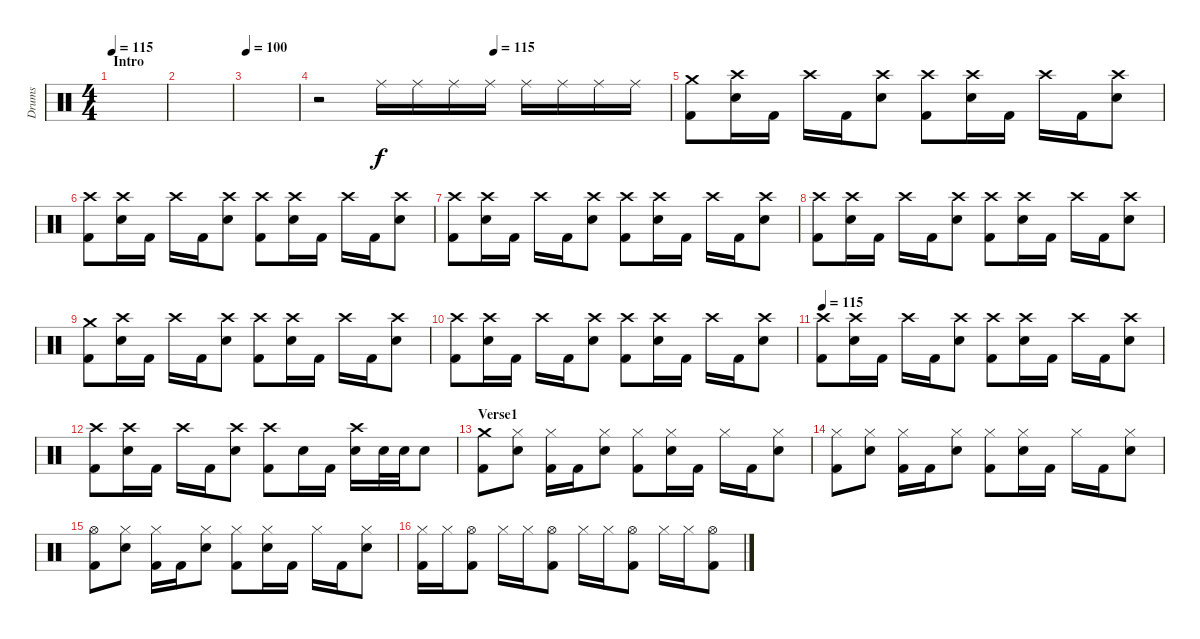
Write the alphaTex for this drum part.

\track ("Drums" "Drums") {instrument percussion}
\staff {score}
\articulation defaults
\ts (4 4)
\section ("" "Intro")
\tempo 115
\tempo 100
\tempo 115
\clef neutral
\ks c
|
|
\tempo 100
|
\tempo (115 0.5)
r.2 "Ride (middle)".16 "Ride (middle)".16 "Ride (middle)".16 "Ride (middle)".16 "Ride (middle)".16 "Ride (middle)".16 "Ride (middle)".16 "Ride (middle)".16 |
("Crash medium (hit)" "Kick (hit) 2").8 ("Crash high (hit)" "Electric Snare (hit)").16 "Kick (hit) 2".16 "Crash high (hit)".16 "Kick (hit) 2".16 ("Crash high (hit)" "Electric Snare (hit)").8 ("Crash high (hit)" "Kick (hit) 2").8 ("Crash high (hit)" "Electric Snare (hit)").16 "Kick (hit) 2".16 "Crash high (hit)".16 "Kick (hit) 2".16 ("Crash high (hit)" "Electric Snare (hit)").8 |
("Crash high (hit)" "Kick (hit) 2").8 ("Crash high (hit)" "Electric Snare (hit)").16 "Kick (hit) 2".16 "Crash high (hit)".16 "Kick (hit) 2".16 ("Crash high (hit)" "Electric Snare (hit)").8 ("Crash high (hit)" "Kick (hit) 2").8 ("Crash high (hit)" "Electric Snare (hit)").16 "Kick (hit) 2".16 "Crash high (hit)".16 "Kick (hit) 2".16 ("Crash high (hit)" "Electric Snare (hit)").8 |
("Crash high (hit)" "Kick (hit) 2").8 ("Crash high (hit)" "Electric Snare (hit)").16 "Kick (hit) 2".16 "Crash high (hit)".16 "Kick (hit) 2".16 ("Crash high (hit)" "Electric Snare (hit)").8 ("Crash high (hit)" "Kick (hit) 2").8 ("Crash high (hit)" "Electric Snare (hit)").16 "Kick (hit) 2".16 "Crash high (hit)".16 "Kick (hit) 2".16 ("Crash high (hit)" "Electric Snare (hit)").8 |
("Crash high (hit)" "Kick (hit) 2").8 ("Crash high (hit)" "Electric Snare (hit)").16 "Kick (hit) 2".16 "Crash high (hit)".16 "Kick (hit) 2".16 ("Crash high (hit)" "Electric Snare (hit)").8 ("Crash high (hit)" "Kick (hit) 2").8 ("Crash high (hit)" "Electric Snare (hit)").16 "Kick (hit) 2".16 "Crash high (hit)".16 "Kick (hit) 2".16 ("Crash high (hit)" "Electric Snare (hit)").8 |
("Crash medium (hit)" "Kick (hit) 2").8 ("Crash high (hit)" "Electric Snare (hit)").16 "Kick (hit) 2".16 "Crash high (hit)".16 "Kick (hit) 2".16 ("Crash high (hit)" "Electric Snare (hit)").8 ("Crash high (hit)" "Kick (hit) 2").8 ("Crash high (hit)" "Electric Snare (hit)").16 "Kick (hit) 2".16 "Crash high (hit)".16 "Kick (hit) 2".16 ("Crash high (hit)" "Electric Snare (hit)").8 |
("Crash high (hit)" "Kick (hit) 2").8 ("Crash high (hit)" "Electric Snare (hit)").16 "Kick (hit) 2".16 "Crash high (hit)".16 "Kick (hit) 2".16 ("Crash high (hit)" "Electric Snare (hit)").8 ("Crash high (hit)" "Kick (hit) 2").8 ("Crash high (hit)" "Electric Snare (hit)").16 "Kick (hit) 2".16 "Crash high (hit)".16 "Kick (hit) 2".16 ("Crash high (hit)" "Electric Snare (hit)").8 |
\tempo 115
("Crash high (hit)" "Kick (hit) 2").8 ("Crash high (hit)" "Electric Snare (hit)").16 "Kick (hit) 2".16 "Crash high (hit)".16 "Kick (hit) 2".16 ("Crash high (hit)" "Electric Snare (hit)").8 ("Crash high (hit)" "Kick (hit) 2").8 ("Crash high (hit)" "Electric Snare (hit)").16 "Kick (hit) 2".16 "Crash high (hit)".16 "Kick (hit) 2".16 ("Crash high (hit)" "Electric Snare (hit)").8 |
("Crash high (hit)" "Kick (hit) 2").8 ("Crash high (hit)" "Electric Snare (hit)").16 "Kick (hit) 2".16 "Crash high (hit)".16 "Kick (hit) 2".16 ("Crash high (hit)" "Electric Snare (hit)").8 ("Crash high (hit)" "Kick (hit) 2").8 "Electric Snare (hit)".16 "Kick (hit) 2".16 ("Crash high (hit)" "Electric Snare (hit)").16 "Electric Snare (hit)".32 "Electric Snare (hit)".32 "Electric Snare (hit)".8 |
\section ("" "Verse1")
("Crash medium (hit)" "Kick (hit) 2").8 ("Hi-Hat (closed)" "Electric Snare (hit)").8 ("Hi-Hat (closed)" "Kick (hit) 2").16 "Kick (hit) 2".16 ("Hi-Hat (closed)" "Electric Snare (hit)").8 ("Hi-Hat (closed)" "Kick (hit) 2").8 ("Hi-Hat (closed)" "Electric Snare (hit)").16 "Kick (hit) 2".16 "Hi-Hat (closed)".16 "Kick (hit) 2".16 ("Hi-Hat (closed)" "Electric Snare (hit)").8 |
("Hi-Hat (closed)" "Kick (hit) 2").8 ("Hi-Hat (closed)" "Electric Snare (hit)").8 ("Hi-Hat (closed)" "Kick (hit) 2").16 "Kick (hit) 2".16 ("Hi-Hat (closed)" "Electric Snare (hit)").8 ("Hi-Hat (closed)" "Kick (hit) 2").8 ("Hi-Hat (closed)" "Electric Snare (hit)").16 "Kick (hit) 2".16 "Hi-Hat (closed)".16 "Kick (hit) 2".16 ("Hi-Hat (closed)" "Electric Snare (hit)").8 |
("Hi-Hat (open)" "Kick (hit) 2").8 ("Hi-Hat (closed)" "Electric Snare (hit)").8 ("Hi-Hat (closed)" "Kick (hit) 2").16 "Kick (hit) 2".16 ("Hi-Hat (closed)" "Electric Snare (hit)").8 ("Hi-Hat (closed)" "Kick (hit) 2").8 ("Hi-Hat (closed)" "Electric Snare (hit)").16 "Kick (hit) 2".16 "Hi-Hat (closed)".16 "Kick (hit) 2".16 ("Hi-Hat (closed)" "Electric Snare (hit)").8 |
("Hi-Hat (closed)" "Kick (hit) 2").16 "Hi-Hat (closed)".16 ("Hi-Hat (open)" "Kick (hit) 2").8 "Hi-Hat (closed)".16 "Hi-Hat (closed)".16 ("Hi-Hat (open)" "Kick (hit) 2").8 "Hi-Hat (closed)".16 "Hi-Hat (closed)".16 ("Hi-Hat (open)" "Kick (hit) 2").8 "Hi-Hat (closed)".16 "Hi-Hat (closed)".16 ("Hi-Hat (open)" "Kick (hit) 2").8
